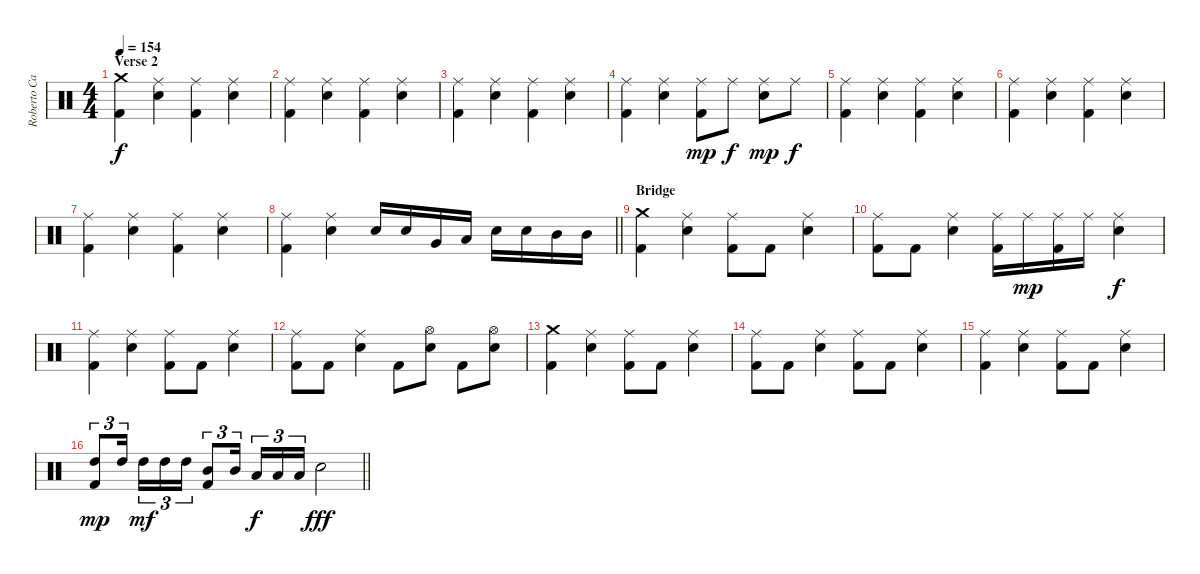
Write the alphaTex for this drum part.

\track ("Roberto Cappa - Drums" "Roberto Ca") {instrument percussion}
\staff
\articulation defaults
\ts (4 4)
\section ("" "Verse 2")
\tempo 154
\clef neutral
\ks c
("Crash medium (hit)" "Kick (hit) 2").4{dy f} ("Ride (middle)" "Electric Snare (hit)").4 ("Ride (middle)" "Kick (hit) 2").4 ("Ride (middle)" "Electric Snare (hit)").4 |
("Ride (middle)" "Kick (hit) 2").4 ("Ride (middle)" "Electric Snare (hit)").4 ("Ride (middle)" "Kick (hit) 2").4 ("Ride (middle)" "Electric Snare (hit)").4 |
("Ride (middle)" "Kick (hit) 2").4 ("Ride (middle)" "Electric Snare (hit)").4 ("Ride (middle)" "Kick (hit) 2").4 ("Ride (middle)" "Electric Snare (hit)").4 |
("Ride (middle)" "Kick (hit) 2").4 ("Ride (middle)" "Electric Snare (hit)").4 ("Ride (middle)" "Kick (hit) 2").8{dy mp} "Ride (middle)".8{dy f} ("Ride (middle)" "Electric Snare (hit)").8{dy mp} "Ride (middle)".8{dy f} |
("Ride (middle)" "Kick (hit) 2").4 ("Ride (middle)" "Electric Snare (hit)").4 ("Ride (middle)" "Kick (hit) 2").4 ("Ride (middle)" "Electric Snare (hit)").4 |
("Ride (middle)" "Kick (hit) 2").4 ("Ride (middle)" "Electric Snare (hit)").4 ("Ride (middle)" "Kick (hit) 2").4 ("Ride (middle)" "Electric Snare (hit)").4 |
("Ride (middle)" "Kick (hit) 2").4 ("Ride (middle)" "Electric Snare (hit)").4 ("Ride (middle)" "Kick (hit) 2").4 ("Ride (middle)" "Electric Snare (hit)").4 |
\barLineRight lightlight
("Ride (middle)" "Kick (hit) 2").4 ("Ride (middle)" "Electric Snare (hit)").4 "Electric Snare (hit)".16 "Electric Snare (hit)".16 "Very Low Tom (hit)".16 "Low Floor Tom (hit)".16 "Electric Snare (hit)".16 "Electric Snare (hit)".16 "Mid Tom (hit)".16 "Mid Tom (hit)".16 |
\section ("" "Bridge")
("Crash medium (hit)" "Kick (hit) 2").4 ("Ride (middle)" "Electric Snare (hit)").4 ("Ride (middle)" "Kick (hit) 2").8 "Kick (hit) 2".8 ("Ride (middle)" "Electric Snare (hit)").4 |
("Ride (middle)" "Kick (hit) 2").8 "Kick (hit) 2".8 ("Ride (middle)" "Electric Snare (hit)").4 ("Ride (middle)" "Kick (hit) 2").16 "Ride (middle)".16{dy mp} ("Ride (middle)" "Kick (hit) 2").16 "Ride (middle)".16 ("Ride (middle)" "Electric Snare (hit)").4{dy f} |
("Ride (middle)" "Kick (hit) 2").4 ("Ride (middle)" "Electric Snare (hit)").4 ("Ride (middle)" "Kick (hit) 2").8 "Kick (hit) 2".8 ("Ride (middle)" "Electric Snare (hit)").4 |
("Ride (middle)" "Kick (hit) 2").8 "Kick (hit) 2".8 ("Ride (middle)" "Electric Snare (hit)").4 "Kick (hit) 2".8 ("Hi-Hat (open)" "Electric Snare (hit)").8 "Kick (hit) 2".8 ("Hi-Hat (open)" "Electric Snare (hit)").8 |
("Crash medium (hit)" "Kick (hit) 2").4 ("Ride (middle)" "Electric Snare (hit)").4 ("Ride (middle)" "Kick (hit) 2").8 "Kick (hit) 2".8 ("Ride (middle)" "Electric Snare (hit)").4 |
("Ride (middle)" "Kick (hit) 2").8 "Kick (hit) 2".8 ("Ride (middle)" "Electric Snare (hit)").4 ("Ride (middle)" "Kick (hit) 2").8 "Kick (hit) 2".8 ("Ride (middle)" "Electric Snare (hit)").4 |
("Ride (middle)" "Kick (hit) 2").4 ("Ride (middle)" "Electric Snare (hit)").4 ("Ride (middle)" "Kick (hit) 2").8 "Kick (hit) 2".8 ("Ride (middle)" "Electric Snare (hit)").4 |
\barLineRight lightlight
("High Tom (hit)" "Kick (hit) 2").8{tu (3 2) dy mp} "High Tom (hit)".16{tu (3 2) beam splitsecondary} "High Tom (hit)".16{tu (3 2) dy mf} "High Tom (hit)".16{tu (3 2)} "High Tom (hit)".16{tu (3 2)} ("Mid Tom (hit)" "Kick (hit) 2").8{tu (3 2)} "Mid Tom (hit)".16{tu (3 2) beam splitsecondary} "Low Tom (hit)".16{tu (3 2) dy f} "Low Tom (hit)".16{tu (3 2)} "Low Tom (hit)".16{tu (3 2)} "Electric Snare (hit)".2{dy fff}
